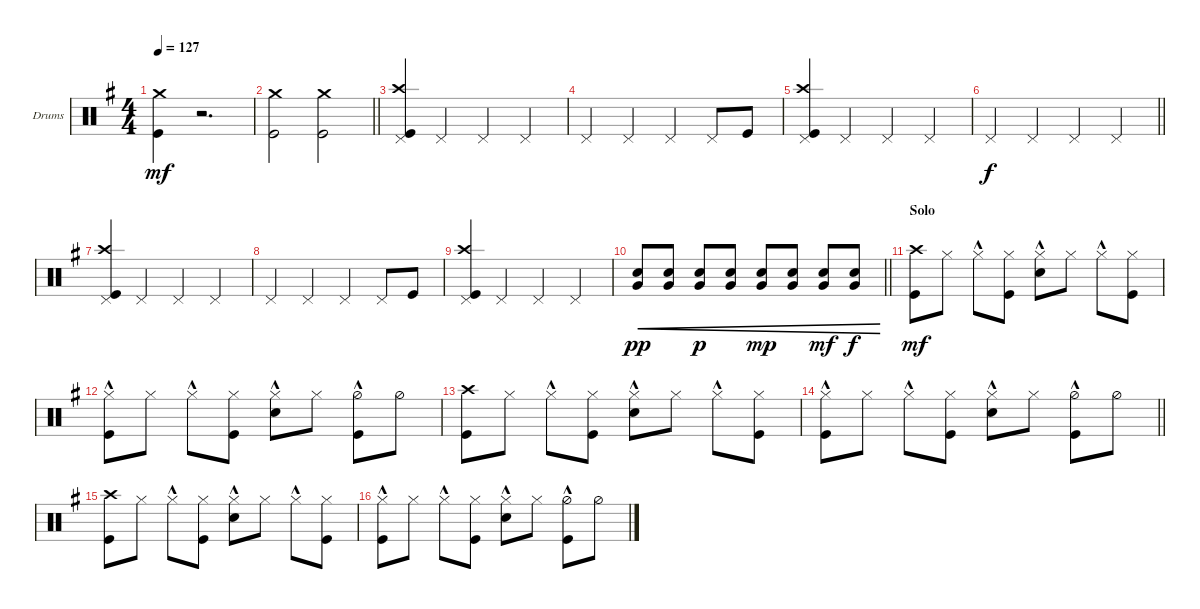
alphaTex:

\bracketExtendMode groupsimilarinstruments
\firstSystemTrackNameOrientation horizontal
\otherSystemsTrackNameOrientation horizontal
\track ("drums (Anton Zulganov)" "Drums") {instrument percussion}
\staff {score}
\articulation defaults
\ts (4 4)
\tempo 127
\clef neutral
\ks eminor
("Kick (hit)" "Crash medium (hit)").4{dy mf} r.2{d} |
\barLineRight lightlight
("Kick (hit)" "Crash medium (hit)").2 ("Kick (hit)" "Crash medium (hit)").2 |
("Kick (hit)" "Crash high (hit)" "Pedal Hi-Hat (hit)").4 "Pedal Hi-Hat (hit)".4 "Pedal Hi-Hat (hit)".4 "Pedal Hi-Hat (hit)".4 |
"Pedal Hi-Hat (hit)".4 "Pedal Hi-Hat (hit)".4 "Pedal Hi-Hat (hit)".4 "Pedal Hi-Hat (hit)".8 "Kick (hit)".8 |
("Kick (hit)" "Crash high (hit)" "Pedal Hi-Hat (hit)").4 "Pedal Hi-Hat (hit)".4 "Pedal Hi-Hat (hit)".4 "Pedal Hi-Hat (hit)".4 |
\barLineRight lightlight "Pedal Hi-Hat (hit)".4{dy f} "Pedal Hi-Hat (hit)".4 "Pedal Hi-Hat (hit)".4 "Pedal Hi-Hat (hit)".4
|
("Pedal Hi-Hat (hit)" "Crash high (hit)" "Kick (hit)").4 "Pedal Hi-Hat (hit)".4 "Pedal Hi-Hat (hit)".4 "Pedal Hi-Hat (hit)".4 |
"Pedal Hi-Hat (hit)".4 "Pedal Hi-Hat (hit)".4 "Pedal Hi-Hat (hit)".4 "Pedal Hi-Hat (hit)".8 "Kick (hit)".8 |
("Pedal Hi-Hat (hit)" "Kick (hit)" "Crash high (hit)").4 "Pedal Hi-Hat (hit)".4 "Pedal Hi-Hat (hit)".4 "Pedal Hi-Hat (hit)".4 |
\barLineRight lightlight
("Snare (hit) 2" "Very Low Tom (hit)").8{cre dy pp} ("Snare (hit) 2" "Very Low Tom (hit)").8{cre} ("Snare (hit) 2" "Very Low Tom (hit)").8{cre dy p} ("Snare (hit) 2" "Very Low Tom (hit)").8{cre} ("Snare (hit) 2" "Very Low Tom (hit)").8{cre dy mp} ("Snare (hit) 2" "Very Low Tom (hit)").8{cre} ("Snare (hit) 2" "Very Low Tom (hit)").8{cre dy mf} ("Snare (hit) 2" "Very Low Tom (hit)").8{cre dy f} |
\section ("" "Solo")
("Kick (hit)" "Crash high (hit)").8{dy mf} "Hi-Hat (closed)".8 "Hi-Hat (closed)"{hac}.8 ("Hi-Hat (closed)" "Kick (hit)").8 ("Hi-Hat (closed)"{hac} "Snare (hit) 2").8 "Hi-Hat (closed)".8 "Hi-Hat (closed)"{hac}.8 ("Hi-Hat (closed)" "Kick (hit)").8 |
("Hi-Hat (closed)"{hac} "Kick (hit)").8 "Hi-Hat (closed)".8 "Hi-Hat (closed)"{hac}.8 ("Hi-Hat (closed)" "Kick (hit)").8 ("Hi-Hat (closed)"{hac} "Snare (hit) 2").8 "Hi-Hat (closed)".8 ("Hi-Hat (half)"{hac} "Kick (hit)").8 "Hi-Hat (half)".8 |
("Kick (hit)" "Crash high (hit)").8 "Hi-Hat (closed)".8 "Hi-Hat (closed)"{hac}.8 ("Hi-Hat (closed)" "Kick (hit)").8 ("Hi-Hat (closed)"{hac} "Snare (hit) 2").8 "Hi-Hat (closed)".8 "Hi-Hat (closed)"{hac}.8 ("Hi-Hat (closed)" "Kick (hit)").8 |
\barLineRight lightlight
("Hi-Hat (closed)"{hac} "Kick (hit)").8 "Hi-Hat (closed)".8 "Hi-Hat (closed)"{hac}.8 ("Hi-Hat (closed)" "Kick (hit)").8 ("Hi-Hat (closed)"{hac} "Snare (hit) 2").8 "Hi-Hat (closed)".8 ("Hi-Hat (half)"{hac} "Kick (hit)").8 "Hi-Hat (half)".8 |
("Kick (hit)" "Crash high (hit)").8 "Hi-Hat (closed)".8 "Hi-Hat (closed)"{hac}.8 ("Hi-Hat (closed)" "Kick (hit)").8 ("Hi-Hat (closed)"{hac} "Snare (hit) 2").8 "Hi-Hat (closed)".8 "Hi-Hat (closed)"{hac}.8 ("Hi-Hat (closed)" "Kick (hit)").8 |
("Hi-Hat (closed)"{hac} "Kick (hit)").8 "Hi-Hat (closed)".8 "Hi-Hat (closed)"{hac}.8 ("Hi-Hat (closed)" "Kick (hit)").8 ("Hi-Hat (closed)"{hac} "Snare (hit) 2").8 "Hi-Hat (closed)".8 ("Hi-Hat (half)"{hac} "Kick (hit)").8 "Hi-Hat (half)".8
